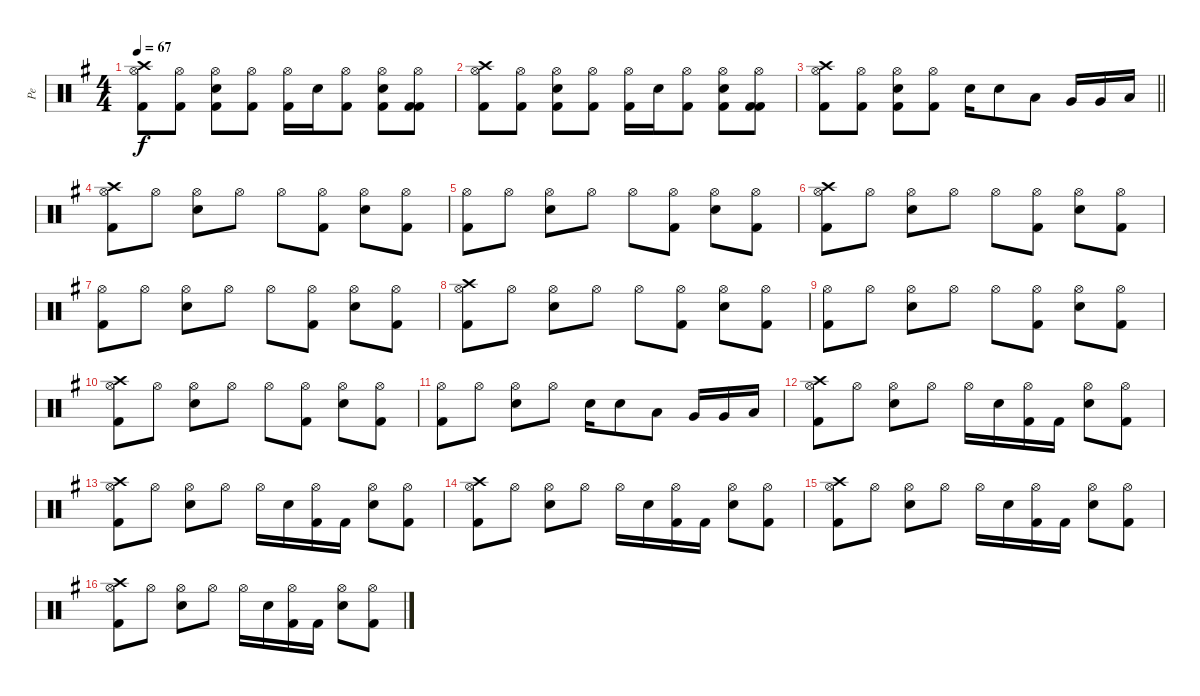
\track ("Pe" "Pe") {instrument percussion}
\staff {score}
\articulation defaults
\ts (4 4)
\tempo 67
\clef neutral
\ks g
("Crash high (hit)" "Hi-Hat (open)" "Kick (hit) 2").8{dy f} ("Hi-Hat (open)" "Kick (hit) 2").8 ("Snare (hit) 2" "Hi-Hat (open)" "Kick (hit) 2").8 ("Hi-Hat (open)" "Kick (hit) 2").8 ("Hi-Hat (open)" "Kick (hit) 2").16 "Snare (hit) 2".16 ("Hi-Hat (open)" "Kick (hit) 2").8 ("Snare (hit) 2" "Hi-Hat (open)" "Kick (hit) 2").8 ("Hi-Hat (open)" "Kick (hit) 2" "Kick (hit) 2").8 |
("Crash high (hit)" "Hi-Hat (open)" "Kick (hit) 2").8 ("Hi-Hat (open)" "Kick (hit) 2").8 ("Snare (hit) 2" "Hi-Hat (open)" "Kick (hit) 2").8 ("Hi-Hat (open)" "Kick (hit) 2").8 ("Hi-Hat (open)" "Kick (hit) 2").16 "Snare (hit) 2".16 ("Hi-Hat (open)" "Kick (hit) 2").8 ("Snare (hit) 2" "Hi-Hat (open)" "Kick (hit) 2").8 ("Hi-Hat (open)" "Kick (hit) 2" "Kick (hit) 2").8 |
\barLineRight lightlight
("Crash high (hit)" "Hi-Hat (open)" "Kick (hit) 2").8 ("Hi-Hat (open)" "Kick (hit) 2").8 ("Snare (hit) 2" "Hi-Hat (open)" "Kick (hit) 2").8 ("Hi-Hat (open)" "Kick (hit) 2").8 "Snare (hit) 2".16 "Snare (hit) 2".8 "Low Tom (hit)".8 "Very Low Tom (hit)".16 "Very Low Tom (hit)".16 "Low Floor Tom (hit)".16 |
("Crash high (hit)" "Hi-Hat (open)" "Kick (hit) 2").8 "Hi-Hat (open)".8 ("Snare (hit) 2" "Hi-Hat (open)").8 "Hi-Hat (open)".8 "Hi-Hat (open)".8 ("Hi-Hat (open)" "Kick (hit) 2").8 ("Snare (hit) 2" "Hi-Hat (open)").8 ("Hi-Hat (open)" "Kick (hit) 2").8 |
("Hi-Hat (open)" "Kick (hit) 2").8 "Hi-Hat (open)".8 ("Snare (hit) 2" "Hi-Hat (open)").8 "Hi-Hat (open)".8 "Hi-Hat (open)".8 ("Hi-Hat (open)" "Kick (hit) 2").8 ("Snare (hit) 2" "Hi-Hat (open)").8 ("Hi-Hat (open)" "Kick (hit) 2").8 |
("Crash high (hit)" "Hi-Hat (open)" "Kick (hit) 2").8 "Hi-Hat (open)".8 ("Snare (hit) 2" "Hi-Hat (open)").8 "Hi-Hat (open)".8 "Hi-Hat (open)".8 ("Hi-Hat (open)" "Kick (hit) 2").8 ("Snare (hit) 2" "Hi-Hat (open)").8 ("Hi-Hat (open)" "Kick (hit) 2").8 |
("Hi-Hat (open)" "Kick (hit) 2").8 "Hi-Hat (open)".8 ("Snare (hit) 2" "Hi-Hat (open)").8 "Hi-Hat (open)".8 "Hi-Hat (open)".8 ("Hi-Hat (open)" "Kick (hit) 2").8 ("Snare (hit) 2" "Hi-Hat (open)").8 ("Hi-Hat (open)" "Kick (hit) 2").8 |
("Crash high (hit)" "Hi-Hat (open)" "Kick (hit) 2").8 "Hi-Hat (open)".8 ("Snare (hit) 2" "Hi-Hat (open)").8 "Hi-Hat (open)".8 "Hi-Hat (open)".8 ("Hi-Hat (open)" "Kick (hit) 2").8 ("Snare (hit) 2" "Hi-Hat (open)").8 ("Hi-Hat (open)" "Kick (hit) 2").8 |
("Hi-Hat (open)" "Kick (hit) 2").8 "Hi-Hat (open)".8 ("Snare (hit) 2" "Hi-Hat (open)").8 "Hi-Hat (open)".8 "Hi-Hat (open)".8 ("Hi-Hat (open)" "Kick (hit) 2").8 ("Snare (hit) 2" "Hi-Hat (open)").8 ("Hi-Hat (open)" "Kick (hit) 2").8 |
("Crash high (hit)" "Hi-Hat (open)" "Kick (hit) 2").8 "Hi-Hat (open)".8 ("Snare (hit) 2" "Hi-Hat (open)").8 "Hi-Hat (open)".8 "Hi-Hat (open)".8 ("Hi-Hat (open)" "Kick (hit) 2").8 ("Snare (hit) 2" "Hi-Hat (open)").8 ("Hi-Hat (open)" "Kick (hit) 2").8 |
("Hi-Hat (open)" "Kick (hit) 2").8 "Hi-Hat (open)".8 ("Snare (hit) 2" "Hi-Hat (open)").8 "Hi-Hat (open)".8 "Snare (hit) 2".16 "Snare (hit) 2".8 "Low Tom (hit)".8 "Very Low Tom (hit)".16 "Very Low Tom (hit)".16 "Low Floor Tom (hit)".16 |
("Crash high (hit)" "Hi-Hat (open)" "Kick (hit) 2").8 "Hi-Hat (open)".8 ("Snare (hit) 2" "Hi-Hat (open)").8 "Hi-Hat (open)".8 "Hi-Hat (open)".16 "Snare (hit) 2".16 ("Hi-Hat (open)" "Kick (hit) 2").16 "Kick (hit) 2".16 ("Snare (hit) 2" "Hi-Hat (open)").8 ("Hi-Hat (open)" "Kick (hit) 2").8 |
("Crash high (hit)" "Hi-Hat (open)" "Kick (hit) 2").8 "Hi-Hat (open)".8 ("Snare (hit) 2" "Hi-Hat (open)").8 "Hi-Hat (open)".8 "Hi-Hat (open)".16 "Snare (hit) 2".16 ("Hi-Hat (open)" "Kick (hit) 2").16 "Kick (hit) 2".16 ("Snare (hit) 2" "Hi-Hat (open)").8 ("Hi-Hat (open)" "Kick (hit) 2").8 |
("Crash high (hit)" "Hi-Hat (open)" "Kick (hit) 2").8 "Hi-Hat (open)".8 ("Snare (hit) 2" "Hi-Hat (open)").8 "Hi-Hat (open)".8 "Hi-Hat (open)".16 "Snare (hit) 2".16 ("Hi-Hat (open)" "Kick (hit) 2").16 "Kick (hit) 2".16 ("Snare (hit) 2" "Hi-Hat (open)").8 ("Hi-Hat (open)" "Kick (hit) 2").8 |
("Crash high (hit)" "Hi-Hat (open)" "Kick (hit) 2").8 "Hi-Hat (open)".8 ("Snare (hit) 2" "Hi-Hat (open)").8 "Hi-Hat (open)".8 "Hi-Hat (open)".16 "Snare (hit) 2".16 ("Hi-Hat (open)" "Kick (hit) 2").16 "Kick (hit) 2".16 ("Snare (hit) 2" "Hi-Hat (open)").8 ("Hi-Hat (open)" "Kick (hit) 2").8 |
("Crash high (hit)" "Hi-Hat (open)" "Kick (hit) 2").8 "Hi-Hat (open)".8 ("Snare (hit) 2" "Hi-Hat (open)").8 "Hi-Hat (open)".8 "Hi-Hat (open)".16 "Snare (hit) 2".16 ("Hi-Hat (open)" "Kick (hit) 2").16 "Kick (hit) 2".16 ("Snare (hit) 2" "Hi-Hat (open)").8 ("Hi-Hat (open)" "Kick (hit) 2").8
